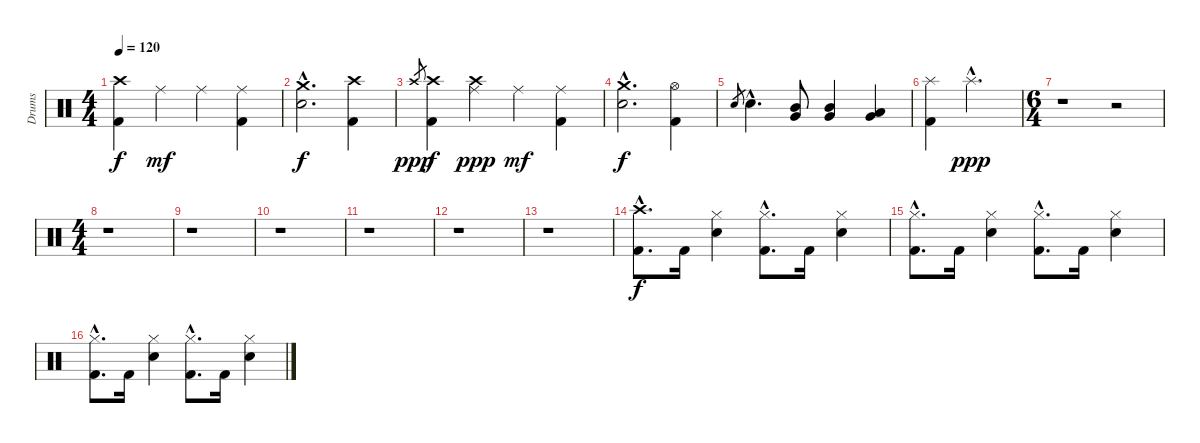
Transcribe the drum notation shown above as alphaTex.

\track ("Drums" "Drums") {instrument percussion}
\staff {score}
\articulation defaults
\ts (4 4)
\tempo 120
\clef neutral
\ks c
("Crash high (hit)" "Kick (hit) 2").4{dy f} "Ride (middle)".4{dy mf} "Ride (middle)".4 ("Ride (middle)" "Kick (hit) 2").4 |
("Crash medium (hit)"{hac} "Snare (hit) 2"{hac}).2{d dy f} ("Crash high (hit)" "Kick (hit) 2").4 |
"Crash high (hit)".8{gr dy ppp} ("Crash high (hit)" "Kick (hit) 2").4{dy f} ("Ride (middle)" "Crash high (hit)").4{dy ppp} "Ride (middle)".4{dy mf} ("Ride (middle)" "Kick (hit) 2").4 |
("Crash medium (hit)"{hac} "Snare (hit) 2"{hac}).2{d dy f} ("Hi-Hat (open)" "Kick (hit) 2").4 |
"Snare (hit) 2".8{gr} "Snare (hit) 2"{hac}.4{d} ("Mid Tom (hit)" "Very Low Tom (hit)").8 ("Mid Tom (hit)" "Very Low Tom (hit)").4 ("Low Tom (hit)" "Very Low Tom (hit)").4 |
("Splash (hit)" "Kick (hit) 2").4 "Splash (hit)"{hac}.2{d dy ppp} |
\ts (6 4)
r.1 r.2 |
\ts (4 4)
r.1 |
r.1 |
r.1 |
r.1 |
r.1 |
r.1 |
("Crash high (hit)"{hac} "Kick (hit) 2"{hac}).8{d dy f} "Kick (hit) 2".16 ("Hi-Hat (closed)" "Snare (hit) 2").4 ("Hi-Hat (closed)"{hac} "Kick (hit) 2"{hac}).8{d} "Kick (hit) 2".16 ("Hi-Hat (closed)" "Snare (hit) 2").4 |
("Hi-Hat (closed)"{hac} "Kick (hit) 2"{hac}).8{d} "Kick (hit) 2".16 ("Hi-Hat (closed)" "Snare (hit) 2").4 ("Hi-Hat (closed)"{hac} "Kick (hit) 2"{hac}).8{d} "Kick (hit) 2".16 ("Hi-Hat (closed)" "Snare (hit) 2").4 |
("Hi-Hat (closed)"{hac} "Kick (hit) 2"{hac}).8{d} "Kick (hit) 2".16 ("Hi-Hat (closed)" "Snare (hit) 2").4 ("Hi-Hat (closed)"{hac} "Kick (hit) 2"{hac}).8{d} "Kick (hit) 2".16 ("Hi-Hat (closed)" "Snare (hit) 2").4
